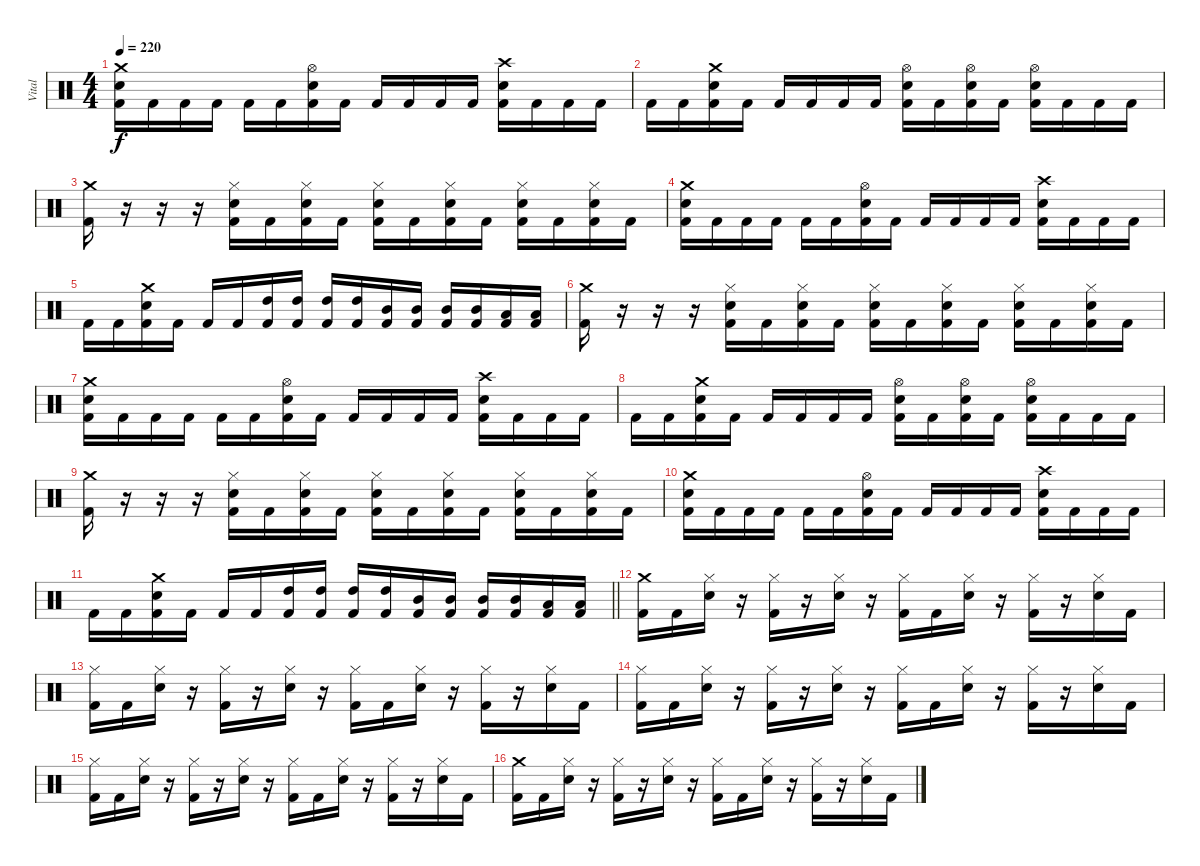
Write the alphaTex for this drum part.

\track ("Vital" "Vital") {instrument percussion}
\staff {score}
\articulation defaults
\ts (4 4)
\tempo 220
\clef neutral
\ks c
("Crash medium (hit)" "Snare (hit) 2" "Kick (hit) 2").16{dy f} "Kick (hit) 2".16 "Kick (hit) 2".16 "Kick (hit) 2".16 "Kick (hit) 2".16 "Kick (hit) 2".16 ("Hi-Hat (open)" "Snare (hit) 2" "Kick (hit) 2").16 "Kick (hit) 2".16 "Kick (hit) 2".16 "Kick (hit) 2".16 "Kick (hit) 2".16 "Kick (hit) 2".16 ("Crash high (hit)" "Snare (hit) 2" "Kick (hit) 2").16 "Kick (hit) 2".16 "Kick (hit) 2".16 "Kick (hit) 2".16 |
"Kick (hit) 2".16 "Kick (hit) 2".16 ("Crash medium (hit)" "Snare (hit) 2" "Kick (hit) 2").16 "Kick (hit) 2".16 "Kick (hit) 2".16 "Kick (hit) 2".16 "Kick (hit) 2".16 "Kick (hit) 2".16 ("Hi-Hat (open)" "Snare (hit) 2" "Kick (hit) 2").16 "Kick (hit) 2".16 ("Hi-Hat (open)" "Snare (hit) 2" "Kick (hit) 2").16 "Kick (hit) 2".16 ("Hi-Hat (open)" "Snare (hit) 2" "Kick (hit) 2").16 "Kick (hit) 2".16 "Kick (hit) 2".16 "Kick (hit) 2".16 |
("Crash medium (hit)" "Kick (hit) 2").16 r.16 r.16 r.16 ("Hi-Hat (closed)" "Snare (hit) 2" "Kick (hit) 2").16 "Kick (hit) 2".16 ("Hi-Hat (closed)" "Snare (hit) 2" "Kick (hit) 2").16 "Kick (hit) 2".16 ("Hi-Hat (closed)" "Snare (hit) 2" "Kick (hit) 2").16 "Kick (hit) 2".16 ("Hi-Hat (closed)" "Snare (hit) 2" "Kick (hit) 2").16 "Kick (hit) 2".16 ("Hi-Hat (closed)" "Snare (hit) 2" "Kick (hit) 2").16 "Kick (hit) 2".16 ("Hi-Hat (closed)" "Snare (hit) 2" "Kick (hit) 2").16 "Kick (hit) 2".16 |
("Crash medium (hit)" "Snare (hit) 2" "Kick (hit) 2").16 "Kick (hit) 2".16 "Kick (hit) 2".16 "Kick (hit) 2".16 "Kick (hit) 2".16 "Kick (hit) 2".16 ("Hi-Hat (open)" "Snare (hit) 2" "Kick (hit) 2").16 "Kick (hit) 2".16 "Kick (hit) 2".16 "Kick (hit) 2".16 "Kick (hit) 2".16 "Kick (hit) 2".16 ("Crash high (hit)" "Snare (hit) 2" "Kick (hit) 2").16 "Kick (hit) 2".16 "Kick (hit) 2".16 "Kick (hit) 2".16 |
"Kick (hit) 2".16 "Kick (hit) 2".16 ("Crash medium (hit)" "Snare (hit) 2" "Kick (hit) 2").16 "Kick (hit) 2".16 "Kick (hit) 2".16 "Kick (hit) 2".16 ("High Tom (hit)" "Kick (hit) 2").16 ("High Tom (hit)" "Kick (hit) 2").16 ("High Tom (hit)" "Kick (hit) 2").16 ("High Tom (hit)" "Kick (hit) 2").16 ("Mid Tom (hit)" "Kick (hit) 2").16 ("Mid Tom (hit)" "Kick (hit) 2").16 ("Mid Tom (hit)" "Kick (hit) 2").16 ("Mid Tom (hit)" "Kick (hit) 2").16 ("Low Tom (hit)" "Kick (hit) 2").16 ("Low Tom (hit)" "Kick (hit) 2").16 |
("Crash medium (hit)" "Kick (hit) 2").16 r.16 r.16 r.16 ("Hi-Hat (closed)" "Snare (hit) 2" "Kick (hit) 2").16 "Kick (hit) 2".16 ("Hi-Hat (closed)" "Snare (hit) 2" "Kick (hit) 2").16 "Kick (hit) 2".16 ("Hi-Hat (closed)" "Snare (hit) 2" "Kick (hit) 2").16 "Kick (hit) 2".16 ("Hi-Hat (closed)" "Snare (hit) 2" "Kick (hit) 2").16 "Kick (hit) 2".16 ("Hi-Hat (closed)" "Snare (hit) 2" "Kick (hit) 2").16 "Kick (hit) 2".16 ("Hi-Hat (closed)" "Snare (hit) 2" "Kick (hit) 2").16 "Kick (hit) 2".16 |
("Crash medium (hit)" "Snare (hit) 2" "Kick (hit) 2").16 "Kick (hit) 2".16 "Kick (hit) 2".16 "Kick (hit) 2".16 "Kick (hit) 2".16 "Kick (hit) 2".16 ("Hi-Hat (open)" "Snare (hit) 2" "Kick (hit) 2").16 "Kick (hit) 2".16 "Kick (hit) 2".16 "Kick (hit) 2".16 "Kick (hit) 2".16 "Kick (hit) 2".16 ("Crash high (hit)" "Snare (hit) 2" "Kick (hit) 2").16 "Kick (hit) 2".16 "Kick (hit) 2".16 "Kick (hit) 2".16 |
"Kick (hit) 2".16 "Kick (hit) 2".16 ("Crash medium (hit)" "Snare (hit) 2" "Kick (hit) 2").16 "Kick (hit) 2".16 "Kick (hit) 2".16 "Kick (hit) 2".16 "Kick (hit) 2".16 "Kick (hit) 2".16 ("Hi-Hat (open)" "Snare (hit) 2" "Kick (hit) 2").16 "Kick (hit) 2".16 ("Hi-Hat (open)" "Snare (hit) 2" "Kick (hit) 2").16 "Kick (hit) 2".16 ("Hi-Hat (open)" "Snare (hit) 2" "Kick (hit) 2").16 "Kick (hit) 2".16 "Kick (hit) 2".16 "Kick (hit) 2".16 |
("Crash medium (hit)" "Kick (hit) 2").16 r.16 r.16 r.16 ("Hi-Hat (closed)" "Snare (hit) 2" "Kick (hit) 2").16 "Kick (hit) 2".16 ("Hi-Hat (closed)" "Snare (hit) 2" "Kick (hit) 2").16 "Kick (hit) 2".16 ("Hi-Hat (closed)" "Snare (hit) 2" "Kick (hit) 2").16 "Kick (hit) 2".16 ("Hi-Hat (closed)" "Snare (hit) 2" "Kick (hit) 2").16 "Kick (hit) 2".16 ("Hi-Hat (closed)" "Snare (hit) 2" "Kick (hit) 2").16 "Kick (hit) 2".16 ("Hi-Hat (closed)" "Snare (hit) 2" "Kick (hit) 2").16 "Kick (hit) 2".16 |
("Crash medium (hit)" "Snare (hit) 2" "Kick (hit) 2").16 "Kick (hit) 2".16 "Kick (hit) 2".16 "Kick (hit) 2".16 "Kick (hit) 2".16 "Kick (hit) 2".16 ("Hi-Hat (open)" "Snare (hit) 2" "Kick (hit) 2").16 "Kick (hit) 2".16 "Kick (hit) 2".16 "Kick (hit) 2".16 "Kick (hit) 2".16 "Kick (hit) 2".16 ("Crash high (hit)" "Snare (hit) 2" "Kick (hit) 2").16 "Kick (hit) 2".16 "Kick (hit) 2".16 "Kick (hit) 2".16 |
\barLineRight lightlight "Kick (hit) 2".16 "Kick (hit) 2".16
("Crash medium (hit)" "Snare (hit) 2" "Kick (hit) 2").16 "Kick (hit) 2".16 "Kick (hit) 2".16 "Kick (hit) 2".16 ("High Tom (hit)" "Kick (hit) 2").16 ("High Tom (hit)" "Kick (hit) 2").16 ("High Tom (hit)" "Kick (hit) 2").16 ("High Tom (hit)" "Kick (hit) 2").16 ("Mid Tom (hit)" "Kick (hit) 2").16 ("Mid Tom (hit)" "Kick (hit) 2").16 ("Mid Tom (hit)" "Kick (hit) 2").16 ("Mid Tom (hit)" "Kick (hit) 2").16 ("Low Tom (hit)" "Kick (hit) 2").16 ("Low Tom (hit)" "Kick (hit) 2").16 |
("Crash medium (hit)" "Kick (hit) 2").16 "Kick (hit) 2".16 ("Hi-Hat (closed)" "Snare (hit) 2").16 r.16 ("Hi-Hat (closed)" "Kick (hit) 2").16 r.16 ("Hi-Hat (closed)" "Snare (hit) 2").16 r.16 ("Hi-Hat (closed)" "Kick (hit) 2").16 "Kick (hit) 2".16 ("Hi-Hat (closed)" "Snare (hit) 2").16 r.16 ("Hi-Hat (closed)" "Kick (hit) 2").16 r.16 ("Hi-Hat (closed)" "Snare (hit) 2").16 "Kick (hit) 2".16 |
("Hi-Hat (closed)" "Kick (hit) 2").16 "Kick (hit) 2".16 ("Hi-Hat (closed)" "Snare (hit) 2").16 r.16 ("Hi-Hat (closed)" "Kick (hit) 2").16 r.16 ("Hi-Hat (closed)" "Snare (hit) 2").16 r.16 ("Hi-Hat (closed)" "Kick (hit) 2").16 "Kick (hit) 2".16 ("Hi-Hat (closed)" "Snare (hit) 2").16 r.16 ("Hi-Hat (closed)" "Kick (hit) 2").16 r.16 ("Hi-Hat (closed)" "Snare (hit) 2").16 "Kick (hit) 2".16 |
("Hi-Hat (closed)" "Kick (hit) 2").16 "Kick (hit) 2".16 ("Hi-Hat (closed)" "Snare (hit) 2").16 r.16 ("Hi-Hat (closed)" "Kick (hit) 2").16 r.16 ("Hi-Hat (closed)" "Snare (hit) 2").16 r.16 ("Hi-Hat (closed)" "Kick (hit) 2").16 "Kick (hit) 2".16 ("Hi-Hat (closed)" "Snare (hit) 2").16 r.16 ("Hi-Hat (closed)" "Kick (hit) 2").16 r.16 ("Hi-Hat (closed)" "Snare (hit) 2").16 "Kick (hit) 2".16 |
("Hi-Hat (closed)" "Kick (hit) 2").16 "Kick (hit) 2".16 ("Hi-Hat (closed)" "Snare (hit) 2").16 r.16 ("Hi-Hat (closed)" "Kick (hit) 2").16 r.16 ("Hi-Hat (closed)" "Snare (hit) 2").16 r.16 ("Hi-Hat (closed)" "Kick (hit) 2").16 "Kick (hit) 2".16 ("Hi-Hat (closed)" "Snare (hit) 2").16 r.16 ("Hi-Hat (closed)" "Kick (hit) 2").16 r.16 ("Hi-Hat (closed)" "Snare (hit) 2").16 "Kick (hit) 2".16 |
("Crash medium (hit)" "Kick (hit) 2").16 "Kick (hit) 2".16 ("Hi-Hat (closed)" "Snare (hit) 2").16 r.16 ("Hi-Hat (closed)" "Kick (hit) 2").16 r.16 ("Hi-Hat (closed)" "Snare (hit) 2").16 r.16 ("Hi-Hat (closed)" "Kick (hit) 2").16 "Kick (hit) 2".16 ("Hi-Hat (closed)" "Snare (hit) 2").16 r.16 ("Hi-Hat (closed)" "Kick (hit) 2").16 r.16 ("Hi-Hat (closed)" "Snare (hit) 2").16 "Kick (hit) 2".16
